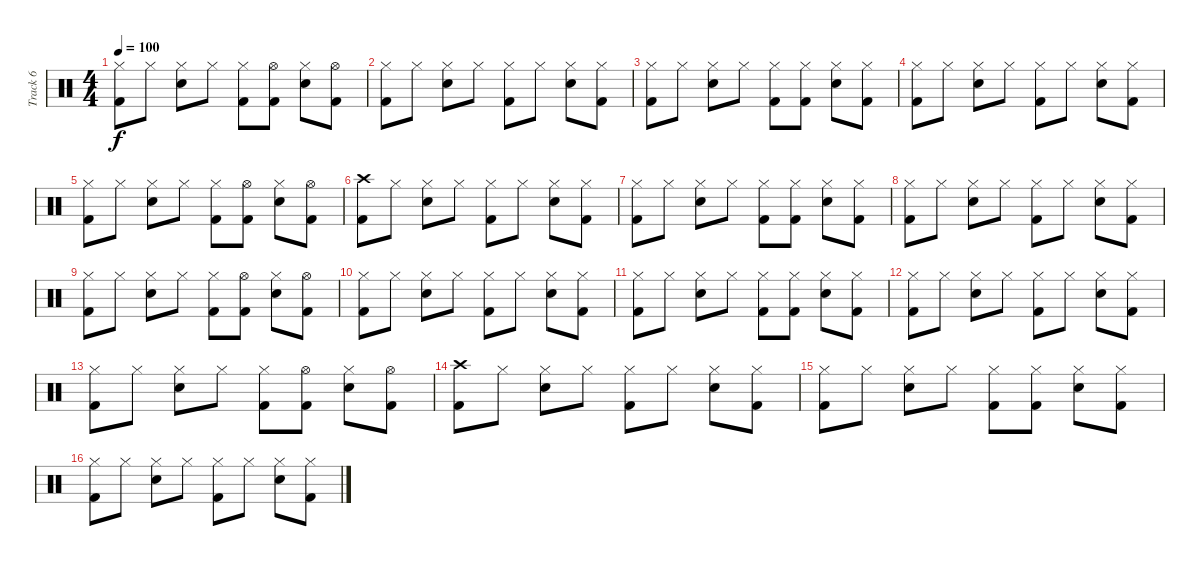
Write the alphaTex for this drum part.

\track ("Track 6" "Track 6") {instrument percussion}
\staff {score}
\articulation defaults
\ts (4 4)
\tempo 100
\clef neutral
\ks c
("Hi-Hat (closed)" "Kick (hit) 2").8{dy f} "Hi-Hat (closed)".8 ("Hi-Hat (closed)" "Electric Snare (hit)").8 "Hi-Hat (closed)".8 ("Hi-Hat (closed)" "Kick (hit) 2").8 ("Hi-Hat (open)" "Kick (hit) 2").8 ("Hi-Hat (closed)" "Electric Snare (hit)").8 ("Hi-Hat (open)" "Kick (hit) 2").8 |
("Hi-Hat (closed)" "Kick (hit) 2").8 "Hi-Hat (closed)".8 ("Hi-Hat (closed)" "Electric Snare (hit)").8 "Hi-Hat (closed)".8 ("Hi-Hat (closed)" "Kick (hit) 2").8 "Hi-Hat (closed)".8 ("Hi-Hat (closed)" "Electric Snare (hit)").8 ("Hi-Hat (closed)" "Kick (hit) 2").8 |
("Hi-Hat (closed)" "Kick (hit) 2").8 "Hi-Hat (closed)".8 ("Hi-Hat (closed)" "Electric Snare (hit)").8 "Hi-Hat (closed)".8 ("Hi-Hat (closed)" "Kick (hit) 2").8 ("Hi-Hat (closed)" "Kick (hit) 2").8 ("Hi-Hat (closed)" "Electric Snare (hit)").8 ("Hi-Hat (closed)" "Kick (hit) 2").8 |
("Hi-Hat (closed)" "Kick (hit) 2").8 "Hi-Hat (closed)".8 ("Hi-Hat (closed)" "Electric Snare (hit)").8 "Hi-Hat (closed)".8 ("Hi-Hat (closed)" "Kick (hit) 2").8 "Hi-Hat (closed)".8 ("Hi-Hat (closed)" "Electric Snare (hit)").8 ("Hi-Hat (closed)" "Kick (hit) 2").8 |
("Hi-Hat (closed)" "Kick (hit) 2").8 "Hi-Hat (closed)".8 ("Hi-Hat (closed)" "Electric Snare (hit)").8 "Hi-Hat (closed)".8 ("Hi-Hat (closed)" "Kick (hit) 2").8 ("Hi-Hat (open)" "Kick (hit) 2").8 ("Hi-Hat (closed)" "Electric Snare (hit)").8 ("Hi-Hat (open)" "Kick (hit) 2").8 |
("Crash high (hit)" "Kick (hit) 2").8 "Hi-Hat (closed)".8 ("Hi-Hat (closed)" "Electric Snare (hit)").8 "Hi-Hat (closed)".8 ("Hi-Hat (closed)" "Kick (hit) 2").8 "Hi-Hat (closed)".8 ("Hi-Hat (closed)" "Electric Snare (hit)").8 ("Hi-Hat (closed)" "Kick (hit) 2").8 |
("Hi-Hat (closed)" "Kick (hit) 2").8 "Hi-Hat (closed)".8 ("Hi-Hat (closed)" "Electric Snare (hit)").8 "Hi-Hat (closed)".8 ("Hi-Hat (closed)" "Kick (hit) 2").8 ("Hi-Hat (closed)" "Kick (hit) 2").8 ("Hi-Hat (closed)" "Electric Snare (hit)").8 ("Hi-Hat (closed)" "Kick (hit) 2").8 |
("Hi-Hat (closed)" "Kick (hit) 2").8 "Hi-Hat (closed)".8 ("Hi-Hat (closed)" "Electric Snare (hit)").8 "Hi-Hat (closed)".8 ("Hi-Hat (closed)" "Kick (hit) 2").8 "Hi-Hat (closed)".8 ("Hi-Hat (closed)" "Electric Snare (hit)").8 ("Hi-Hat (closed)" "Kick (hit) 2").8 |
("Hi-Hat (closed)" "Kick (hit) 2").8 "Hi-Hat (closed)".8 ("Hi-Hat (closed)" "Electric Snare (hit)").8 "Hi-Hat (closed)".8 ("Hi-Hat (closed)" "Kick (hit) 2").8 ("Hi-Hat (open)" "Kick (hit) 2").8 ("Hi-Hat (closed)" "Electric Snare (hit)").8 ("Hi-Hat (open)" "Kick (hit) 2").8 |
("Hi-Hat (closed)" "Kick (hit) 2").8 "Hi-Hat (closed)".8 ("Hi-Hat (closed)" "Electric Snare (hit)").8 "Hi-Hat (closed)".8 ("Hi-Hat (closed)" "Kick (hit) 2").8 "Hi-Hat (closed)".8 ("Hi-Hat (closed)" "Electric Snare (hit)").8 ("Hi-Hat (closed)" "Kick (hit) 2").8 |
("Hi-Hat (closed)" "Kick (hit) 2").8 "Hi-Hat (closed)".8 ("Hi-Hat (closed)" "Electric Snare (hit)").8 "Hi-Hat (closed)".8 ("Hi-Hat (closed)" "Kick (hit) 2").8 ("Hi-Hat (closed)" "Kick (hit) 2").8 ("Hi-Hat (closed)" "Electric Snare (hit)").8 ("Hi-Hat (closed)" "Kick (hit) 2").8 |
("Hi-Hat (closed)" "Kick (hit) 2").8 "Hi-Hat (closed)".8 ("Hi-Hat (closed)" "Electric Snare (hit)").8 "Hi-Hat (closed)".8 ("Hi-Hat (closed)" "Kick (hit) 2").8 "Hi-Hat (closed)".8 ("Hi-Hat (closed)" "Electric Snare (hit)").8 ("Hi-Hat (closed)" "Kick (hit) 2").8 |
("Hi-Hat (closed)" "Kick (hit) 2").8 "Hi-Hat (closed)".8 ("Hi-Hat (closed)" "Electric Snare (hit)").8 "Hi-Hat (closed)".8 ("Hi-Hat (closed)" "Kick (hit) 2").8 ("Hi-Hat (open)" "Kick (hit) 2").8 ("Hi-Hat (closed)" "Electric Snare (hit)").8 ("Hi-Hat (open)" "Kick (hit) 2").8 |
("Crash high (hit)" "Kick (hit) 2").8 "Hi-Hat (closed)".8 ("Hi-Hat (closed)" "Electric Snare (hit)").8 "Hi-Hat (closed)".8 ("Hi-Hat (closed)" "Kick (hit) 2").8 "Hi-Hat (closed)".8 ("Hi-Hat (closed)" "Electric Snare (hit)").8 ("Hi-Hat (closed)" "Kick (hit) 2").8 |
("Hi-Hat (closed)" "Kick (hit) 2").8 "Hi-Hat (closed)".8 ("Hi-Hat (closed)" "Electric Snare (hit)").8 "Hi-Hat (closed)".8 ("Hi-Hat (closed)" "Kick (hit) 2").8 ("Hi-Hat (closed)" "Kick (hit) 2").8 ("Hi-Hat (closed)" "Electric Snare (hit)").8 ("Hi-Hat (closed)" "Kick (hit) 2").8 |
("Hi-Hat (closed)" "Kick (hit) 2").8 "Hi-Hat (closed)".8 ("Hi-Hat (closed)" "Electric Snare (hit)").8 "Hi-Hat (closed)".8 ("Hi-Hat (closed)" "Kick (hit) 2").8 "Hi-Hat (closed)".8 ("Hi-Hat (closed)" "Electric Snare (hit)").8 ("Hi-Hat (closed)" "Kick (hit) 2").8
